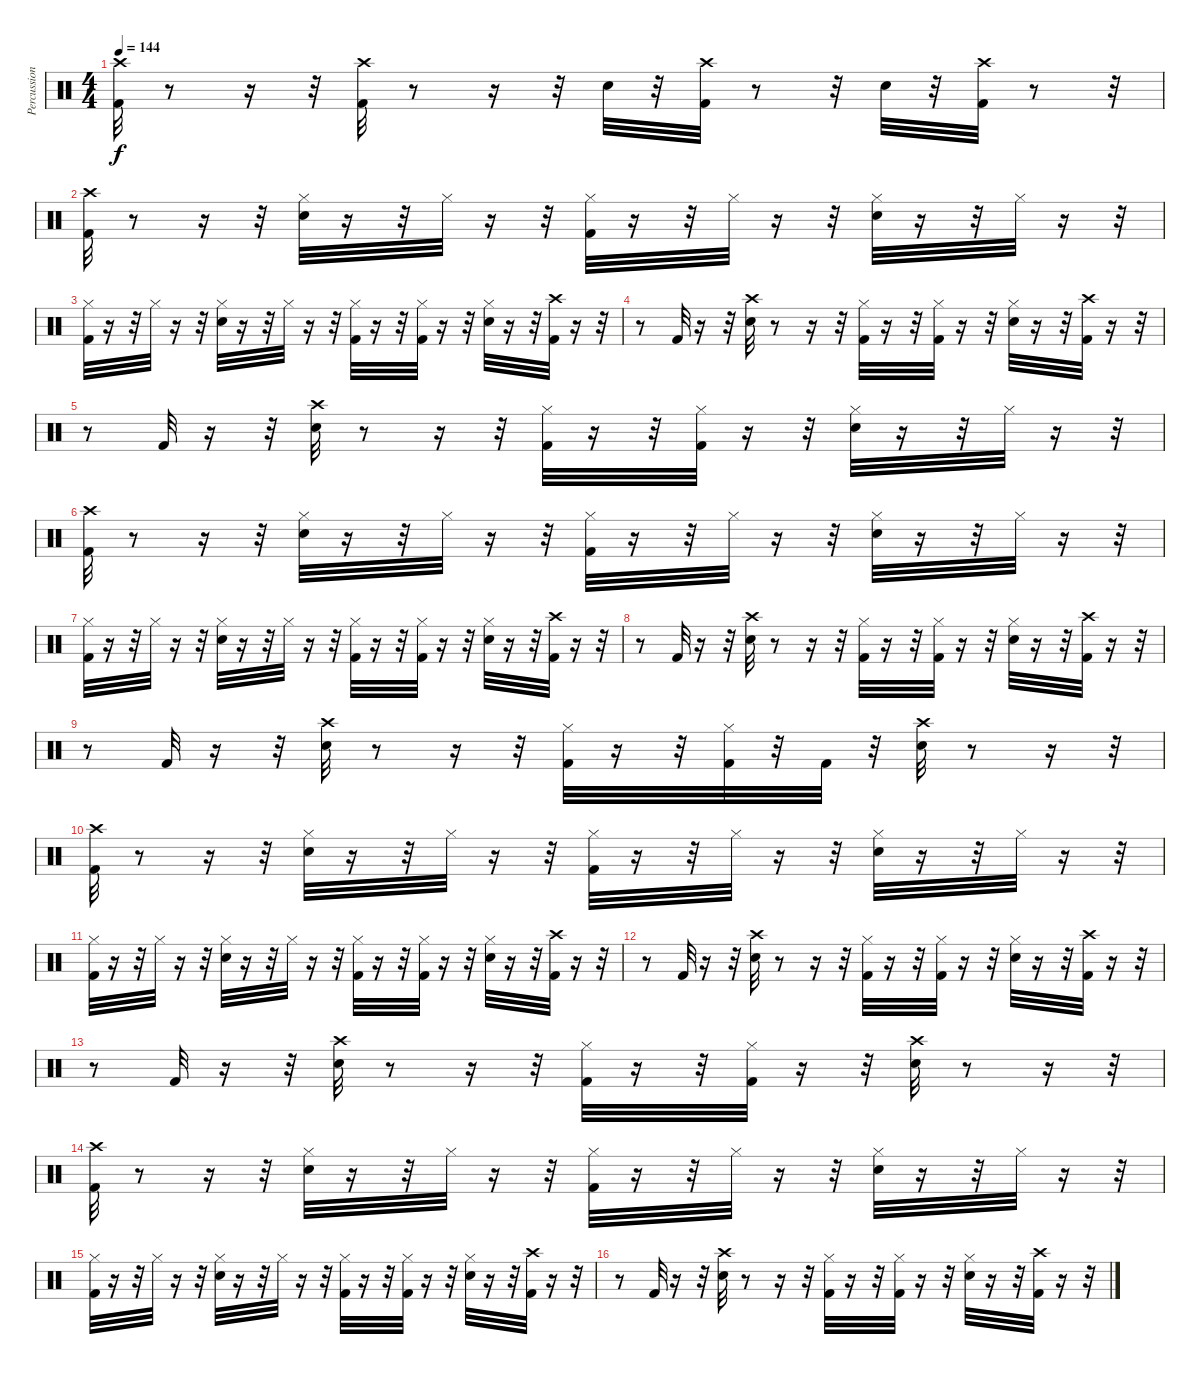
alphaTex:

\track ("Percussion" "Percussion") {instrument percussion}
\staff {score}
\articulation defaults
\ts (4 4)
\tempo 144
\clef neutral
\ks c
("Kick (hit) 2" "Crash high (hit)").32{dy f} r.8 r.16 r.32 ("Kick (hit) 2" "Crash high (hit)").32 r.8 r.16 r.32 "Snare (hit) 2".32 r.32 ("Kick (hit) 2" "Crash high (hit)").32 r.8 r.32 "Snare (hit) 2".32 r.32 ("Kick (hit) 2" "Crash high (hit)").32 r.8 r.32 |
("Kick (hit) 2" "Crash high (hit)").32 r.8 r.16 r.32 ("Snare (hit) 2" "Hi-Hat (closed)").32 r.16 r.32 "Hi-Hat (closed)".32 r.16 r.32 ("Kick (hit) 2" "Hi-Hat (closed)").32 r.16 r.32 "Hi-Hat (closed)".32 r.16 r.32 ("Snare (hit) 2" "Hi-Hat (closed)").32 r.16 r.32 "Hi-Hat (closed)".32 r.16 r.32 |
("Kick (hit) 2" "Hi-Hat (closed)").32 r.16 r.32 "Hi-Hat (closed)".32 r.16 r.32 ("Snare (hit) 2" "Hi-Hat (closed)").32 r.16 r.32 "Hi-Hat (closed)".32 r.16 r.32 ("Kick (hit) 2" "Hi-Hat (closed)").32 r.16 r.32 ("Kick (hit) 2" "Hi-Hat (closed)").32 r.16 r.32 ("Snare (hit) 2" "Hi-Hat (closed)").32 r.16 r.32 ("Kick (hit) 2" "Crash high (hit)").32 r.16 r.32 |
r.8 "Kick (hit) 2".32 r.16 r.32 ("Crash high (hit)" "Snare (hit) 2").32 r.8 r.16 r.32 ("Kick (hit) 2" "Hi-Hat (closed)").32 r.16 r.32 ("Kick (hit) 2" "Hi-Hat (closed)").32 r.16 r.32 ("Snare (hit) 2" "Hi-Hat (closed)").32 r.16 r.32 ("Kick (hit) 2" "Crash high (hit)").32 r.16 r.32 |
r.8 "Kick (hit) 2".32 r.16 r.32 ("Crash high (hit)" "Snare (hit) 2").32 r.8 r.16 r.32 ("Kick (hit) 2" "Hi-Hat (closed)").32 r.16 r.32 ("Kick (hit) 2" "Hi-Hat (closed)").32 r.16 r.32 ("Snare (hit) 2" "Hi-Hat (closed)").32 r.16 r.32 "Hi-Hat (closed)".32 r.16 r.32 |
("Kick (hit) 2" "Crash high (hit)").32 r.8 r.16 r.32 ("Snare (hit) 2" "Hi-Hat (closed)").32 r.16 r.32 "Hi-Hat (closed)".32 r.16 r.32 ("Kick (hit) 2" "Hi-Hat (closed)").32 r.16 r.32 "Hi-Hat (closed)".32 r.16 r.32 ("Snare (hit) 2" "Hi-Hat (closed)").32 r.16 r.32 "Hi-Hat (closed)".32 r.16 r.32 |
("Kick (hit) 2" "Hi-Hat (closed)").32 r.16 r.32 "Hi-Hat (closed)".32 r.16 r.32 ("Snare (hit) 2" "Hi-Hat (closed)").32 r.16 r.32 "Hi-Hat (closed)".32 r.16 r.32 ("Kick (hit) 2" "Hi-Hat (closed)").32 r.16 r.32 ("Kick (hit) 2" "Hi-Hat (closed)").32 r.16 r.32 ("Snare (hit) 2" "Hi-Hat (closed)").32 r.16 r.32 ("Kick (hit) 2" "Crash high (hit)").32 r.16 r.32 |
r.8 "Kick (hit) 2".32 r.16 r.32 ("Crash high (hit)" "Snare (hit) 2").32 r.8 r.16 r.32 ("Kick (hit) 2" "Hi-Hat (closed)").32 r.16 r.32 ("Kick (hit) 2" "Hi-Hat (closed)").32 r.16 r.32 ("Snare (hit) 2" "Hi-Hat (closed)").32 r.16 r.32 ("Kick (hit) 2" "Crash high (hit)").32 r.16 r.32 |
r.8 "Kick (hit) 2".32 r.16 r.32 ("Crash high (hit)" "Snare (hit) 2").32 r.8 r.16 r.32 ("Kick (hit) 2" "Hi-Hat (closed)").32 r.16 r.32 ("Kick (hit) 2" "Hi-Hat (closed)").32 r.32 "Kick (hit) 2".32 r.32 ("Crash high (hit)" "Snare (hit) 2").32 r.8 r.16 r.32 |
("Kick (hit) 2" "Crash high (hit)").32 r.8 r.16 r.32 ("Snare (hit) 2" "Hi-Hat (closed)").32 r.16 r.32 "Hi-Hat (closed)".32 r.16 r.32 ("Kick (hit) 2" "Hi-Hat (closed)").32 r.16 r.32 "Hi-Hat (closed)".32 r.16 r.32 ("Snare (hit) 2" "Hi-Hat (closed)").32 r.16 r.32 "Hi-Hat (closed)".32 r.16 r.32 |
("Kick (hit) 2" "Hi-Hat (closed)").32 r.16 r.32 "Hi-Hat (closed)".32 r.16 r.32 ("Snare (hit) 2" "Hi-Hat (closed)").32 r.16 r.32 "Hi-Hat (closed)".32 r.16 r.32 ("Kick (hit) 2" "Hi-Hat (closed)").32 r.16 r.32 ("Kick (hit) 2" "Hi-Hat (closed)").32 r.16 r.32 ("Snare (hit) 2" "Hi-Hat (closed)").32 r.16 r.32 ("Kick (hit) 2" "Crash high (hit)").32 r.16 r.32 |
r.8 "Kick (hit) 2".32 r.16 r.32 ("Crash high (hit)" "Snare (hit) 2").32 r.8 r.16 r.32 ("Kick (hit) 2" "Hi-Hat (closed)").32 r.16 r.32 ("Kick (hit) 2" "Hi-Hat (closed)").32 r.16 r.32 ("Snare (hit) 2" "Hi-Hat (closed)").32 r.16 r.32 ("Kick (hit) 2" "Crash high (hit)").32 r.16 r.32 |
r.8 "Kick (hit) 2".32 r.16 r.32 ("Crash high (hit)" "Snare (hit) 2").32 r.8 r.16 r.32 ("Kick (hit) 2" "Hi-Hat (closed)").32 r.16 r.32 ("Kick (hit) 2" "Hi-Hat (closed)").32 r.16 r.32 ("Crash high (hit)" "Snare (hit) 2").32 r.8 r.16 r.32 |
("Kick (hit) 2" "Crash high (hit)").32 r.8 r.16 r.32 ("Snare (hit) 2" "Hi-Hat (closed)").32 r.16 r.32 "Hi-Hat (closed)".32 r.16 r.32 ("Kick (hit) 2" "Hi-Hat (closed)").32 r.16 r.32 "Hi-Hat (closed)".32 r.16 r.32 ("Snare (hit) 2" "Hi-Hat (closed)").32 r.16 r.32 "Hi-Hat (closed)".32 r.16 r.32 |
("Kick (hit) 2" "Hi-Hat (closed)").32 r.16 r.32 "Hi-Hat (closed)".32 r.16 r.32 ("Snare (hit) 2" "Hi-Hat (closed)").32 r.16 r.32 "Hi-Hat (closed)".32 r.16 r.32 ("Kick (hit) 2" "Hi-Hat (closed)").32 r.16 r.32 ("Kick (hit) 2" "Hi-Hat (closed)").32 r.16 r.32 ("Snare (hit) 2" "Hi-Hat (closed)").32 r.16 r.32 ("Kick (hit) 2" "Crash high (hit)").32 r.16 r.32 |
r.8 "Kick (hit) 2".32 r.16 r.32 ("Crash high (hit)" "Snare (hit) 2").32 r.8 r.16 r.32 ("Kick (hit) 2" "Hi-Hat (closed)").32 r.16 r.32 ("Kick (hit) 2" "Hi-Hat (closed)").32 r.16 r.32 ("Snare (hit) 2" "Hi-Hat (closed)").32 r.16 r.32 ("Kick (hit) 2" "Crash high (hit)").32 r.16 r.32
